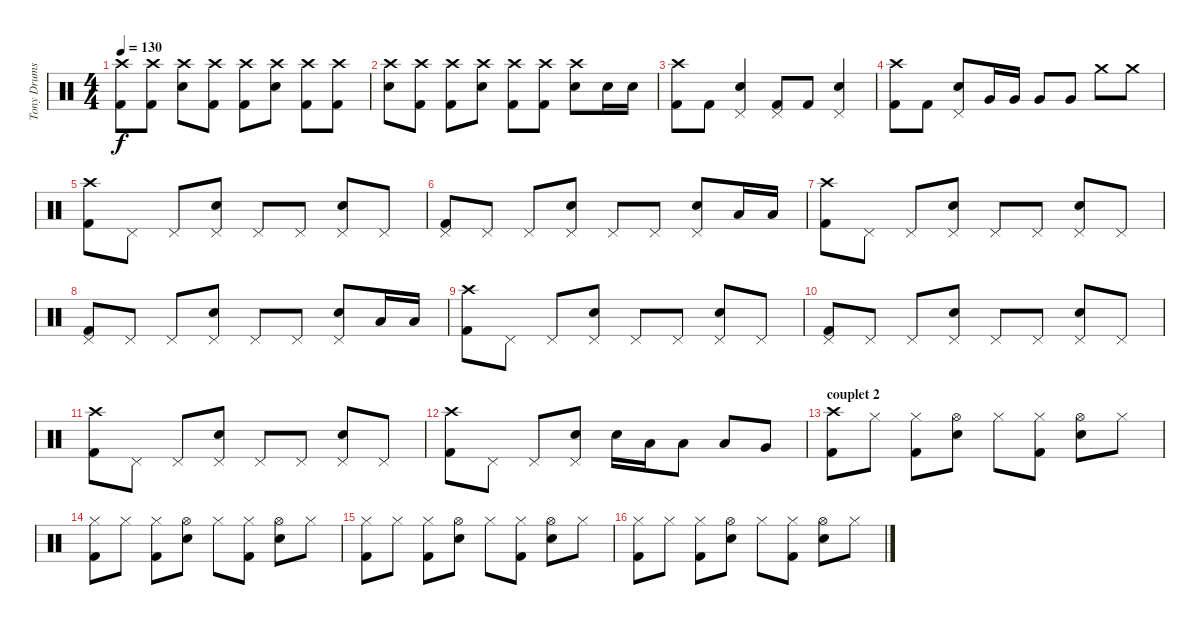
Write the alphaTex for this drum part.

\track ("Tony Drums" "Tony Drums") {instrument percussion}
\staff {score}
\articulation defaults
\ts (4 4)
\tempo 130
\clef neutral
\ks c
("Crash high (hit)" "Kick (hit) 2").8{dy f} ("Crash high (hit)" "Kick (hit) 2").8 ("Crash high (hit)" "Snare (hit) 2").8 ("Crash high (hit)" "Kick (hit) 2").8 ("Crash high (hit)" "Kick (hit) 2").8 ("Crash high (hit)" "Snare (hit) 2").8 ("Crash high (hit)" "Kick (hit) 2").8 ("Crash high (hit)" "Kick (hit) 2").8 |
("Crash high (hit)" "Snare (hit) 2").8 ("Crash high (hit)" "Kick (hit) 2").8 ("Crash high (hit)" "Kick (hit) 2").8 ("Crash high (hit)" "Snare (hit) 2").8 ("Crash high (hit)" "Kick (hit) 2").8 ("Crash high (hit)" "Kick (hit) 2").8 ("Crash high (hit)" "Snare (hit) 2").8 "Snare (hit) 2".16 "Snare (hit) 2".16 |
("Crash high (hit)" "Kick (hit) 2").8 "Kick (hit) 2".8 ("Pedal Hi-Hat (hit)" "Snare (hit) 2").4 ("Pedal Hi-Hat (hit)" "Kick (hit) 2").8 "Kick (hit) 2".8 ("Pedal Hi-Hat (hit)" "Snare (hit) 2").4 |
("Crash high (hit)" "Kick (hit) 2").8 "Kick (hit) 2".8 ("Pedal Hi-Hat (hit)" "Snare (hit) 2").8 "Very Low Tom (hit)".16 "Very Low Tom (hit)".16 "Very Low Tom (hit)".8 "Very Low Tom (hit)".8 "Crash medium (hit)".8 "Crash medium (hit)".8 |
("Crash high (hit)" "Kick (hit) 2").8 "Pedal Hi-Hat (hit)".8 "Pedal Hi-Hat (hit)".8 ("Pedal Hi-Hat (hit)" "Snare (hit) 2").8 "Pedal Hi-Hat (hit)".8 "Pedal Hi-Hat (hit)".8 ("Pedal Hi-Hat (hit)" "Snare (hit) 2").8 "Pedal Hi-Hat (hit)".8 |
("Pedal Hi-Hat (hit)" "Kick (hit) 2").8 "Pedal Hi-Hat (hit)".8 "Pedal Hi-Hat (hit)".8 ("Pedal Hi-Hat (hit)" "Snare (hit) 2").8 "Pedal Hi-Hat (hit)".8 "Pedal Hi-Hat (hit)".8 ("Pedal Hi-Hat (hit)" "Snare (hit) 2").8 "Low Tom (hit)".16 "Low Tom (hit)".16 |
("Crash high (hit)" "Kick (hit) 2").8 "Pedal Hi-Hat (hit)".8 "Pedal Hi-Hat (hit)".8 ("Pedal Hi-Hat (hit)" "Snare (hit) 2").8 "Pedal Hi-Hat (hit)".8 "Pedal Hi-Hat (hit)".8 ("Pedal Hi-Hat (hit)" "Snare (hit) 2").8 "Pedal Hi-Hat (hit)".8 |
("Pedal Hi-Hat (hit)" "Kick (hit) 2").8 "Pedal Hi-Hat (hit)".8 "Pedal Hi-Hat (hit)".8 ("Pedal Hi-Hat (hit)" "Snare (hit) 2").8 "Pedal Hi-Hat (hit)".8 "Pedal Hi-Hat (hit)".8 ("Pedal Hi-Hat (hit)" "Snare (hit) 2").8 "Low Tom (hit)".16 "Low Tom (hit)".16 |
("Crash high (hit)" "Kick (hit) 2").8 "Pedal Hi-Hat (hit)".8 "Pedal Hi-Hat (hit)".8 ("Pedal Hi-Hat (hit)" "Snare (hit) 2").8 "Pedal Hi-Hat (hit)".8 "Pedal Hi-Hat (hit)".8 ("Pedal Hi-Hat (hit)" "Snare (hit) 2").8 "Pedal Hi-Hat (hit)".8 |
("Pedal Hi-Hat (hit)" "Kick (hit) 2").8 "Pedal Hi-Hat (hit)".8 "Pedal Hi-Hat (hit)".8 ("Pedal Hi-Hat (hit)" "Snare (hit) 2").8 "Pedal Hi-Hat (hit)".8 "Pedal Hi-Hat (hit)".8 ("Pedal Hi-Hat (hit)" "Snare (hit) 2").8 "Pedal Hi-Hat (hit)".8 |
("Crash high (hit)" "Kick (hit) 2").8 "Pedal Hi-Hat (hit)".8 "Pedal Hi-Hat (hit)".8 ("Pedal Hi-Hat (hit)" "Snare (hit) 2").8 "Pedal Hi-Hat (hit)".8 "Pedal Hi-Hat (hit)".8 ("Pedal Hi-Hat (hit)" "Snare (hit) 2").8 "Pedal Hi-Hat (hit)".8 |
("Crash high (hit)" "Kick (hit) 2").8 "Pedal Hi-Hat (hit)".8 "Pedal Hi-Hat (hit)".8 ("Pedal Hi-Hat (hit)" "Snare (hit) 2").8 "Snare (hit) 2".16 "Low Tom (hit)".16 "Low Tom (hit)".8 "Low Tom (hit)".8 "Very Low Tom (hit)".8 |
\section ("" "couplet 2")
("Crash high (hit)" "Kick (hit) 2").8 "Hi-Hat (closed)".8 ("Hi-Hat (closed)" "Kick (hit) 2").8 ("Hi-Hat (open)" "Snare (hit) 2").8 "Hi-Hat (closed)".8 ("Hi-Hat (closed)" "Kick (hit) 2").8 ("Hi-Hat (open)" "Snare (hit) 2").8 "Hi-Hat (closed)".8 |
("Hi-Hat (closed)" "Kick (hit) 2").8 "Hi-Hat (closed)".8 ("Hi-Hat (closed)" "Kick (hit) 2").8 ("Hi-Hat (open)" "Snare (hit) 2").8 "Hi-Hat (closed)".8 ("Hi-Hat (closed)" "Kick (hit) 2").8 ("Hi-Hat (open)" "Snare (hit) 2").8 "Hi-Hat (closed)".8 |
("Hi-Hat (closed)" "Kick (hit) 2").8 "Hi-Hat (closed)".8 ("Hi-Hat (closed)" "Kick (hit) 2").8 ("Hi-Hat (open)" "Snare (hit) 2").8 "Hi-Hat (closed)".8 ("Hi-Hat (closed)" "Kick (hit) 2").8 ("Hi-Hat (open)" "Snare (hit) 2").8 "Hi-Hat (closed)".8 |
("Hi-Hat (closed)" "Kick (hit) 2").8 "Hi-Hat (closed)".8 ("Hi-Hat (closed)" "Kick (hit) 2").8 ("Hi-Hat (open)" "Snare (hit) 2").8 "Hi-Hat (closed)".8 ("Hi-Hat (closed)" "Kick (hit) 2").8 ("Hi-Hat (open)" "Snare (hit) 2").8 "Hi-Hat (closed)".8
